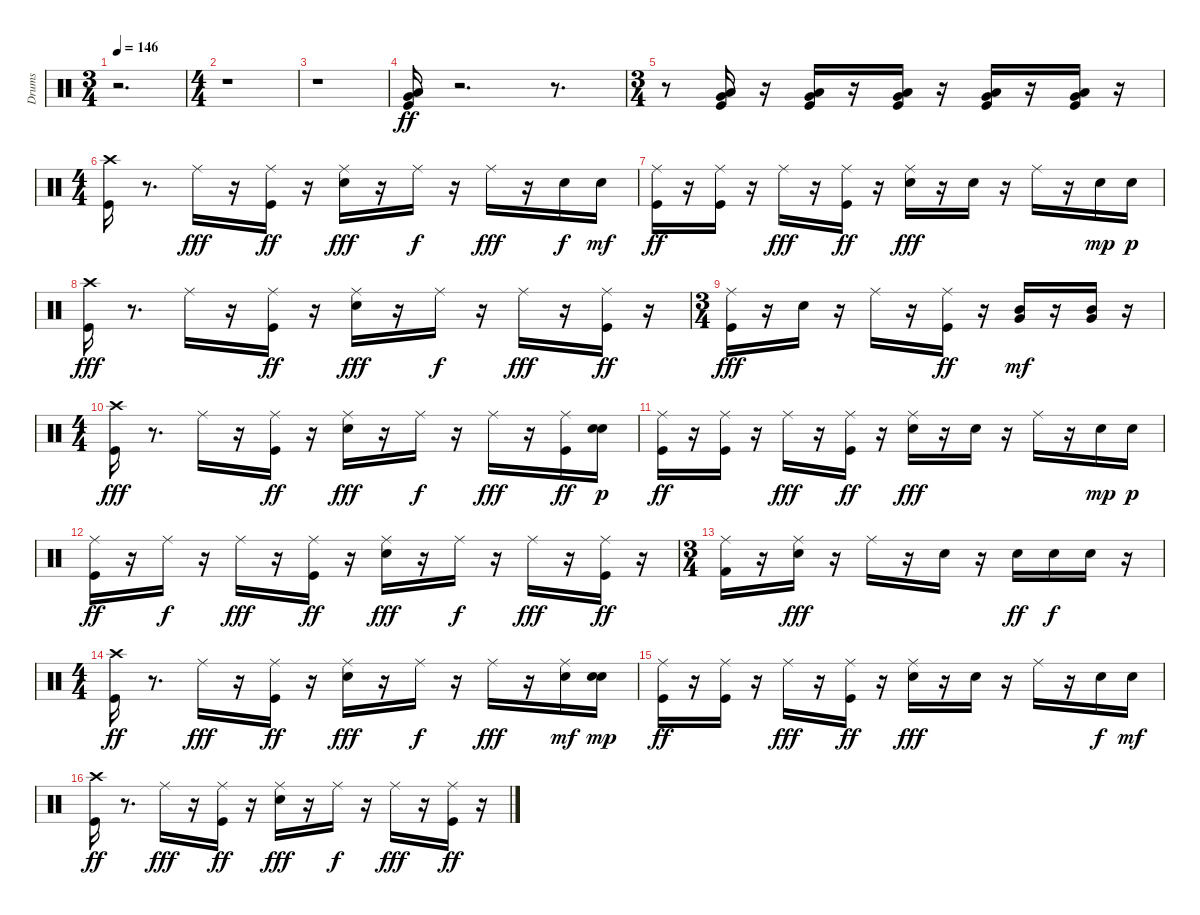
\track ("Drums" "Drums") {instrument percussion}
\staff {score}
\articulation defaults
\ts (3 4)
\tempo 146
\clef neutral
\ks c
r.2{d dy ff} |
\ts (4 4)
r.1 |
r.1 |
("Very Low Tom (hit)" "Low Floor Tom (hit)" "Kick (hit)").16 r.2{d} r.8{d} |
\ts (3 4)
r.8 ("Very Low Tom (hit)" "Low Floor Tom (hit)" "Kick (hit)").16 r.16 ("Very Low Tom (hit)" "Low Floor Tom (hit)" "Kick (hit)").16 r.16 ("Very Low Tom (hit)" "Low Floor Tom (hit)" "Kick (hit)").16 r.16 ("Very Low Tom (hit)" "Low Floor Tom (hit)" "Kick (hit)").16 r.16 ("Very Low Tom (hit)" "Low Floor Tom (hit)" "Kick (hit)").16 r.16 |
\ts (4 4)
("Crash high (hit)" "Kick (hit)").16 r.8{d} "Ride (middle)".16{dy fff} r.16 ("Ride (middle)" "Kick (hit)").16{dy ff} r.16 ("Ride (middle)" "Snare (hit) 2").16{dy fff} r.16 "Ride (middle)".16{dy f} r.16 "Ride (middle)".16{dy fff} r.16 "Snare (hit) 2".16{dy f} "Snare (hit) 2".16{dy mf} |
("Ride (middle)" "Kick (hit)").16{dy ff} r.16 ("Ride (middle)" "Kick (hit)").16 r.16 "Ride (middle)".16{dy fff} r.16 ("Ride (middle)" "Kick (hit)").16{dy ff} r.16 ("Ride (middle)" "Snare (hit) 2").16{dy fff} r.16 "Snare (hit) 2".16 r.16 "Ride (middle)".16 r.16 "Snare (hit) 2".16{dy mp} "Snare (hit) 2".16{dy p} |
("Kick (hit)" "Crash high (hit)").16{dy fff} r.8{d} "Ride (middle)".16 r.16 ("Kick (hit)" "Ride (middle)").16{dy ff} r.16 ("Snare (hit) 2" "Ride (middle)").16{dy fff} r.16 "Ride (middle)".16{dy f} r.16 "Ride (middle)".16{dy fff} r.16 ("Kick (hit)" "Ride (middle)").16{dy ff} r.16 |
\ts (3 4)
("Kick (hit)" "Ride (middle)").16{dy fff} r.16 "Snare (hit) 2".16 r.16 "Ride (middle)".16 r.16 ("Kick (hit)" "Ride (middle)").16{dy ff} r.16 ("Mid Tom (hit)" "Very Low Tom (hit)").16{dy mf} r.16 ("Mid Tom (hit)" "Very Low Tom (hit)").16 r.16 |
\ts (4 4)
("Kick (hit)" "Crash high (hit)").16{dy fff} r.8{d} "Ride (middle)".16 r.16 ("Kick (hit)" "Ride (middle)").16{dy ff} r.16 ("Snare (hit) 2" "Ride (middle)").16{dy fff} r.16 "Ride (middle)".16{dy f} r.16 "Ride (middle)".16{dy fff} r.16 ("Kick (hit)" "Ride (middle)").16{dy ff} ("Snare (hit) 2" "Snare (hit) 2").16{dy p} |
("Ride (middle)" "Kick (hit)").16{dy ff} r.16 ("Ride (middle)" "Kick (hit)").16 r.16 "Ride (middle)".16{dy fff} r.16 ("Ride (middle)" "Kick (hit)").16{dy ff} r.16 ("Ride (middle)" "Snare (hit) 2").16{dy fff} r.16 "Snare (hit) 2".16 r.16 "Ride (middle)".16 r.16 "Snare (hit) 2".16{dy mp} "Snare (hit) 2".16{dy p} |
("Ride (middle)" "Kick (hit)").16{dy ff} r.16 "Ride (middle)".16{dy f} r.16 "Ride (middle)".16{dy fff} r.16 ("Ride (middle)" "Kick (hit)").16{dy ff} r.16 ("Ride (middle)" "Snare (hit) 2").16{dy fff} r.16 "Ride (middle)".16{dy f} r.16 "Ride (middle)".16{dy fff} r.16 ("Ride (middle)" "Kick (hit)").16{dy ff} r.16 |
\ts (3 4)
("Ride (middle)" "Kick (hit) 2").16 r.16 ("Ride (middle)" "Snare (hit) 2").16{dy fff} r.16 "Ride (middle)".16 r.16 "Snare (hit) 2".16 r.16 "Snare (hit) 2".16{dy ff} "Snare (hit) 2".16{dy f} "Snare (hit) 2".16 r.16 |
\ts (4 4)
("Crash high (hit)" "Kick (hit)").16{dy ff} r.8{d} "Ride (middle)".16{dy fff} r.16 ("Ride (middle)" "Kick (hit)").16{dy ff} r.16 ("Ride (middle)" "Snare (hit) 2").16{dy fff} r.16 "Ride (middle)".16{dy f} r.16 "Ride (middle)".16{dy fff} r.16 ("Ride (middle)" "Snare (hit) 2").16{dy mf} ("Snare (hit) 2" "Snare (hit) 2").16{dy mp} |
("Kick (hit)" "Ride (middle)").16{dy ff} r.16 ("Kick (hit)" "Ride (middle)").16 r.16 "Ride (middle)".16{dy fff} r.16 ("Kick (hit)" "Ride (middle)").16{dy ff} r.16 ("Snare (hit) 2" "Ride (middle)").16{dy fff} r.16 "Snare (hit) 2".16 r.16 "Ride (middle)".16 r.16 "Snare (hit) 2".16{dy f} "Snare (hit) 2".16{dy mf} |
("Crash high (hit)" "Kick (hit)").16{dy ff} r.8{d} "Ride (middle)".16{dy fff} r.16 ("Ride (middle)" "Kick (hit)").16{dy ff} r.16 ("Ride (middle)" "Snare (hit) 2").16{dy fff} r.16 "Ride (middle)".16{dy f} r.16 "Ride (middle)".16{dy fff} r.16 ("Ride (middle)" "Kick (hit)").16{dy ff} r.16
